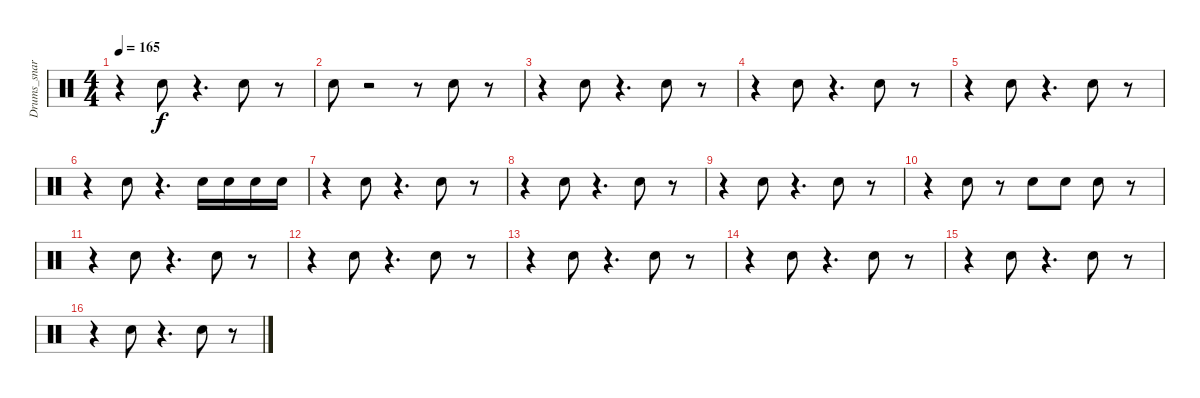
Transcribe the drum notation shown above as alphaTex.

\track ("Drums_snare&tom" "Drums_snar") {instrument percussion}
\staff {score}
\articulation defaults
\ts (4 4)
\tempo 165
\clef neutral
\ks c
r.4{dy f} "Snare (hit) 2".8 r.4{d} "Snare (hit) 2".8 r.8 |
"Snare (hit) 2".8 r.2 r.8 "Snare (hit) 2".8 r.8 |
r.4 "Snare (hit) 2".8 r.4{d} "Snare (hit) 2".8 r.8 |
r.4 "Snare (hit) 2".8 r.4{d} "Snare (hit) 2".8 r.8 |
r.4 "Snare (hit) 2".8 r.4{d} "Snare (hit) 2".8 r.8 |
r.4 "Snare (hit) 2".8 r.4{d} "Snare (hit) 2".16 "Snare (hit) 2".16 "Snare (hit) 2".16 "Snare (hit) 2".16 |
r.4 "Snare (hit) 2".8 r.4{d} "Snare (hit) 2".8 r.8 |
r.4 "Snare (hit) 2".8 r.4{d} "Snare (hit) 2".8 r.8 |
r.4 "Snare (hit) 2".8 r.4{d} "Snare (hit) 2".8 r.8 |
r.4 "Snare (hit) 2".8 r.8 "Snare (hit) 2".8 "Snare (hit) 2".8 "Snare (hit) 2".8 r.8 |
r.4 "Snare (hit) 2".8 r.4{d} "Snare (hit) 2".8 r.8 |
r.4 "Snare (hit) 2".8 r.4{d} "Snare (hit) 2".8 r.8 |
r.4 "Snare (hit) 2".8 r.4{d} "Snare (hit) 2".8 r.8 |
r.4 "Snare (hit) 2".8 r.4{d} "Snare (hit) 2".8 r.8 |
r.4 "Snare (hit) 2".8 r.4{d} "Snare (hit) 2".8 r.8 |
r.4 "Snare (hit) 2".8 r.4{d} "Snare (hit) 2".8 r.8
